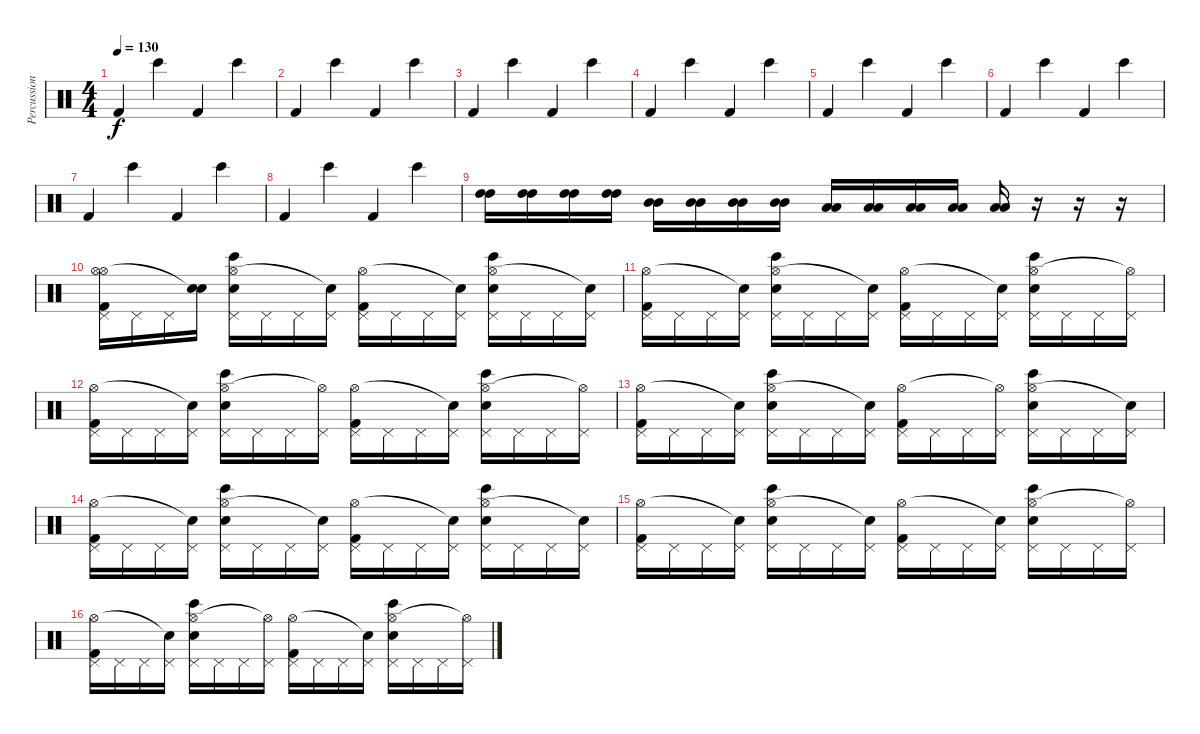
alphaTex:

\track ("Percussion" "Percussion") {instrument percussion}
\staff {score}
\articulation defaults
\ts (4 4)
\tempo 130
\clef neutral
\ks c "Kick (hit) 2".4{dy f} "Bongo High (hit)".4 "Kick (hit) 2".4 "Bongo High (hit)".4
|
"Kick (hit) 2".4 "Bongo High (hit)".4 "Kick (hit) 2".4 "Bongo High (hit)".4 |
"Kick (hit) 2".4 "Bongo High (hit)".4 "Kick (hit) 2".4 "Bongo High (hit)".4 |
"Kick (hit) 2".4 "Bongo High (hit)".4 "Kick (hit) 2".4 "Bongo High (hit)".4 |
"Kick (hit) 2".4 "Bongo High (hit)".4 "Kick (hit) 2".4 "Bongo High (hit)".4 |
"Kick (hit) 2".4 "Bongo High (hit)".4 "Kick (hit) 2".4 "Bongo High (hit)".4 |
"Kick (hit) 2".4 "Bongo High (hit)".4 "Kick (hit) 2".4 "Bongo High (hit)".4 |
"Kick (hit) 2".4 "Bongo High (hit)".4 "Kick (hit) 2".4 "Bongo High (hit)".4 |
("High Tom (hit)" "High Tom (hit)").16 ("High Tom (hit)" "High Tom (hit)").16 ("High Tom (hit)" "High Tom (hit)").16 ("High Tom (hit)" "High Tom (hit)").16 ("Mid Tom (hit)" "Mid Tom (hit)").16 ("Mid Tom (hit)" "Mid Tom (hit)").16 ("Mid Tom (hit)" "Mid Tom (hit)").16 ("Mid Tom (hit)" "Mid Tom (hit)").16 ("Low Tom (hit)" "Low Tom (hit)").16 ("Low Tom (hit)" "Low Tom (hit)").16 ("Low Tom (hit)" "Low Tom (hit)").16 ("Low Tom (hit)" "Low Tom (hit)").16 ("Low Floor Tom (hit)" "Low Floor Tom (hit)").16 r.16 r.16 r.16 |
("Pedal Hi-Hat (hit)" "Hi-Hat (open)" "Hi-Hat (open)" "Kick (hit) 2").16 "Pedal Hi-Hat (hit)".16 "Pedal Hi-Hat (hit)".16 ("Snare (hit)" "Snare (hit)"{t}).16 ("Pedal Hi-Hat (hit)" "Hi-Hat (open)" "Electric Snare (hit)" "Bongo High (hit)").16 "Pedal Hi-Hat (hit)".16 "Pedal Hi-Hat (hit)".16 ("Pedal Hi-Hat (hit)" "Snare (hit)"{t}).16 ("Pedal Hi-Hat (hit)" "Hi-Hat (open)" "Kick (hit) 2").16 "Pedal Hi-Hat (hit)".16 "Pedal Hi-Hat (hit)".16 ("Pedal Hi-Hat (hit)" "Snare (hit)"{t}).16 ("Pedal Hi-Hat (hit)" "Hi-Hat (open)" "Electric Snare (hit)" "Bongo High (hit)").16 "Pedal Hi-Hat (hit)".16 "Pedal Hi-Hat (hit)".16 ("Pedal Hi-Hat (hit)" "Snare (hit)"{t}).16 |
("Pedal Hi-Hat (hit)" "Hi-Hat (open)" "Kick (hit) 2").16 "Pedal Hi-Hat (hit)".16 "Pedal Hi-Hat (hit)".16 ("Pedal Hi-Hat (hit)" "Snare (hit)"{t}).16 ("Pedal Hi-Hat (hit)" "Hi-Hat (open)" "Electric Snare (hit)" "Bongo High (hit)").16 "Pedal Hi-Hat (hit)".16 "Pedal Hi-Hat (hit)".16 ("Pedal Hi-Hat (hit)" "Snare (hit)"{t}).16 ("Pedal Hi-Hat (hit)" "Hi-Hat (open)" "Kick (hit) 2").16 "Pedal Hi-Hat (hit)".16 "Pedal Hi-Hat (hit)".16 ("Pedal Hi-Hat (hit)" "Snare (hit)"{t}).16 ("Pedal Hi-Hat (hit)" "Hi-Hat (open)" "Electric Snare (hit)" "Bongo High (hit)").16 "Pedal Hi-Hat (hit)".16 "Pedal Hi-Hat (hit)".16 ("Pedal Hi-Hat (hit)" "Hi-Hat (open)"{t}).16 |
("Pedal Hi-Hat (hit)" "Hi-Hat (open)" "Kick (hit) 2").16 "Pedal Hi-Hat (hit)".16 "Pedal Hi-Hat (hit)".16 ("Pedal Hi-Hat (hit)" "Snare (hit)"{t}).16 ("Pedal Hi-Hat (hit)" "Hi-Hat (open)" "Electric Snare (hit)" "Bongo High (hit)").16 "Pedal Hi-Hat (hit)".16 "Pedal Hi-Hat (hit)".16 ("Pedal Hi-Hat (hit)" "Hi-Hat (open)"{t}).16 ("Pedal Hi-Hat (hit)" "Hi-Hat (open)" "Kick (hit) 2").16 "Pedal Hi-Hat (hit)".16 "Pedal Hi-Hat (hit)".16 ("Pedal Hi-Hat (hit)" "Snare (hit)"{t}).16 ("Pedal Hi-Hat (hit)" "Hi-Hat (open)" "Electric Snare (hit)" "Bongo High (hit)").16 "Pedal Hi-Hat (hit)".16 "Pedal Hi-Hat (hit)".16 ("Pedal Hi-Hat (hit)" "Hi-Hat (open)"{t}).16 |
("Pedal Hi-Hat (hit)" "Hi-Hat (open)" "Kick (hit) 2").16 "Pedal Hi-Hat (hit)".16 "Pedal Hi-Hat (hit)".16 ("Pedal Hi-Hat (hit)" "Snare (hit)"{t}).16 ("Pedal Hi-Hat (hit)" "Hi-Hat (open)" "Electric Snare (hit)" "Bongo High (hit)").16 "Pedal Hi-Hat (hit)".16 "Pedal Hi-Hat (hit)".16 ("Pedal Hi-Hat (hit)" "Snare (hit)"{t}).16 ("Pedal Hi-Hat (hit)" "Hi-Hat (open)" "Kick (hit) 2").16 "Pedal Hi-Hat (hit)".16 "Pedal Hi-Hat (hit)".16 ("Pedal Hi-Hat (hit)" "Hi-Hat (open)"{t}).16 ("Pedal Hi-Hat (hit)" "Hi-Hat (open)" "Electric Snare (hit)" "Bongo High (hit)").16 "Pedal Hi-Hat (hit)".16 "Pedal Hi-Hat (hit)".16 ("Pedal Hi-Hat (hit)" "Snare (hit)"{t}).16 |
("Pedal Hi-Hat (hit)" "Hi-Hat (open)" "Kick (hit) 2").16 "Pedal Hi-Hat (hit)".16 "Pedal Hi-Hat (hit)".16 ("Pedal Hi-Hat (hit)" "Snare (hit)"{t}).16 ("Pedal Hi-Hat (hit)" "Hi-Hat (open)" "Electric Snare (hit)" "Bongo High (hit)").16 "Pedal Hi-Hat (hit)".16 "Pedal Hi-Hat (hit)".16 ("Pedal Hi-Hat (hit)" "Snare (hit)"{t}).16 ("Pedal Hi-Hat (hit)" "Hi-Hat (open)" "Kick (hit) 2").16 "Pedal Hi-Hat (hit)".16 "Pedal Hi-Hat (hit)".16 ("Pedal Hi-Hat (hit)" "Snare (hit)"{t}).16 ("Pedal Hi-Hat (hit)" "Hi-Hat (open)" "Electric Snare (hit)" "Bongo High (hit)").16 "Pedal Hi-Hat (hit)".16 "Pedal Hi-Hat (hit)".16 ("Pedal Hi-Hat (hit)" "Snare (hit)"{t}).16 |
("Pedal Hi-Hat (hit)" "Hi-Hat (open)" "Kick (hit) 2").16 "Pedal Hi-Hat (hit)".16 "Pedal Hi-Hat (hit)".16 ("Pedal Hi-Hat (hit)" "Snare (hit)"{t}).16 ("Pedal Hi-Hat (hit)" "Hi-Hat (open)" "Electric Snare (hit)" "Bongo High (hit)").16 "Pedal Hi-Hat (hit)".16 "Pedal Hi-Hat (hit)".16 ("Pedal Hi-Hat (hit)" "Snare (hit)"{t}).16 ("Pedal Hi-Hat (hit)" "Hi-Hat (open)" "Kick (hit) 2").16 "Pedal Hi-Hat (hit)".16 "Pedal Hi-Hat (hit)".16 ("Pedal Hi-Hat (hit)" "Snare (hit)"{t}).16 ("Pedal Hi-Hat (hit)" "Hi-Hat (open)" "Electric Snare (hit)" "Bongo High (hit)").16 "Pedal Hi-Hat (hit)".16 "Pedal Hi-Hat (hit)".16 ("Pedal Hi-Hat (hit)" "Hi-Hat (open)"{t}).16 |
("Pedal Hi-Hat (hit)" "Hi-Hat (open)" "Kick (hit) 2").16 "Pedal Hi-Hat (hit)".16 "Pedal Hi-Hat (hit)".16 ("Pedal Hi-Hat (hit)" "Snare (hit)"{t}).16 ("Pedal Hi-Hat (hit)" "Hi-Hat (open)" "Electric Snare (hit)" "Bongo High (hit)").16 "Pedal Hi-Hat (hit)".16 "Pedal Hi-Hat (hit)".16 ("Pedal Hi-Hat (hit)" "Hi-Hat (open)"{t}).16 ("Pedal Hi-Hat (hit)" "Hi-Hat (open)" "Kick (hit) 2").16 "Pedal Hi-Hat (hit)".16 "Pedal Hi-Hat (hit)".16 ("Pedal Hi-Hat (hit)" "Snare (hit)"{t}).16 ("Pedal Hi-Hat (hit)" "Hi-Hat (open)" "Electric Snare (hit)" "Bongo High (hit)").16 "Pedal Hi-Hat (hit)".16 "Pedal Hi-Hat (hit)".16 ("Pedal Hi-Hat (hit)" "Hi-Hat (open)"{t}).16
